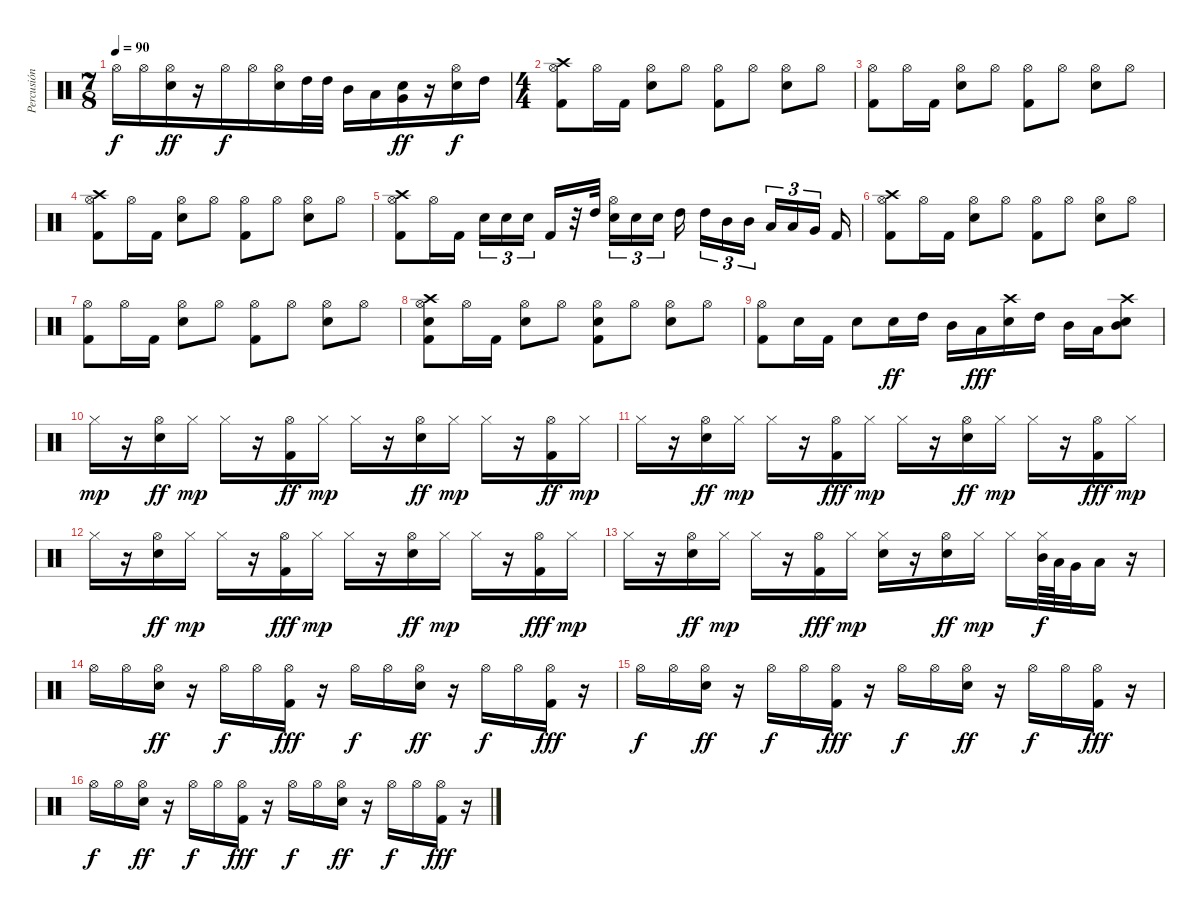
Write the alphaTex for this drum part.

\track ("Percusión" "Percusión") {instrument percussion}
\staff {score}
\articulation defaults
\ts (7 8)
\tempo 90
\clef neutral
\ks c "Hi-Hat (open)".16{dy f} "Hi-Hat (open)".16
("Hi-Hat (open)" "Electric Snare (hit)").16{dy ff} r.16 "Hi-Hat (open)".16{dy f} "Hi-Hat (open)".16 ("Hi-Hat (open)" "Electric Snare (hit)").16 "High Tom (hit)".32 "High Tom (hit)".32 "Mid Tom (hit)".16 "Low Tom (hit)".16 ("Electric Snare (hit)" "Very Low Tom (hit)").16{dy ff} r.16 ("Hi-Hat (open)" "Electric Snare (hit)").16{dy f} "High Tom (hit)".16 |
\ts (4 4)
("Crash high (hit)" "Hi-Hat (open)" "Kick (hit) 2").8 "Hi-Hat (open)".16 "Kick (hit) 2".16 ("Hi-Hat (open)" "Electric Snare (hit)").8 "Hi-Hat (open)".8 ("Hi-Hat (open)" "Kick (hit) 2").8 "Hi-Hat (open)".8 ("Hi-Hat (open)" "Electric Snare (hit)").8 "Hi-Hat (open)".8 |
("Hi-Hat (open)" "Kick (hit) 2").8 "Hi-Hat (open)".16 "Kick (hit) 2".16 ("Hi-Hat (open)" "Electric Snare (hit)").8 "Hi-Hat (open)".8 ("Hi-Hat (open)" "Kick (hit) 2").8 "Hi-Hat (open)".8 ("Hi-Hat (open)" "Electric Snare (hit)").8 "Hi-Hat (open)".8 |
("Crash high (hit)" "Hi-Hat (open)" "Kick (hit) 2").8 "Hi-Hat (open)".16 "Kick (hit) 2".16 ("Hi-Hat (open)" "Electric Snare (hit)").8 "Hi-Hat (open)".8 ("Hi-Hat (open)" "Kick (hit) 2").8 "Hi-Hat (open)".8 ("Hi-Hat (open)" "Electric Snare (hit)").8 "Hi-Hat (open)".8 |
("Crash high (hit)" "Hi-Hat (open)" "Kick (hit) 2").8 "Hi-Hat (open)".16 "Kick (hit) 2".16 "Electric Snare (hit)".16{tu (3 2)} "Electric Snare (hit)".16{tu (3 2)} "Electric Snare (hit)".16{tu (3 2) beam splitsecondary} "Kick (hit) 2".16 r.32 "High Tom (hit)".32 ("Hi-Hat (open)" "Electric Snare (hit)").16{tu (3 2)} "Electric Snare (hit)".16{tu (3 2)} "Electric Snare (hit)".16{tu (3 2) beam splitsecondary} "High Tom (hit)".16{beam splitsecondary} "High Tom (hit)".16{tu (3 2)} "Mid Tom (hit)".16{tu (3 2)} "Mid Tom (hit)".16{tu (3 2) beam splitsecondary} "Low Tom (hit)".16{tu (3 2)} "Low Tom (hit)".16{tu (3 2)} "Very Low Tom (hit)".16{tu (3 2) beam splitsecondary} "Kick (hit) 2".16 |
("Crash high (hit)" "Hi-Hat (open)" "Kick (hit) 2").8 "Hi-Hat (open)".16 "Kick (hit) 2".16 ("Hi-Hat (open)" "Electric Snare (hit)").8 "Hi-Hat (open)".8 ("Hi-Hat (open)" "Kick (hit) 2").8 "Hi-Hat (open)".8 ("Hi-Hat (open)" "Electric Snare (hit)").8 "Hi-Hat (open)".8 |
("Hi-Hat (open)" "Kick (hit) 2").8 "Hi-Hat (open)".16 "Kick (hit) 2".16 ("Hi-Hat (open)" "Electric Snare (hit)").8 "Hi-Hat (open)".8 ("Hi-Hat (open)" "Kick (hit) 2").8 "Hi-Hat (open)".8 ("Hi-Hat (open)" "Electric Snare (hit)").8 "Hi-Hat (open)".8 |
("Crash high (hit)" "Hi-Hat (open)" "Electric Snare (hit)" "Kick (hit) 2").8 "Hi-Hat (open)".16 "Kick (hit) 2".16 ("Hi-Hat (open)" "Electric Snare (hit)").8 "Hi-Hat (open)".8 ("Hi-Hat (open)" "Electric Snare (hit)" "Kick (hit) 2").8 "Hi-Hat (open)".8 ("Hi-Hat (open)" "Electric Snare (hit)").8 "Hi-Hat (open)".8 |
("Hi-Hat (open)" "Kick (hit) 2").8 "Electric Snare (hit)".16 "Kick (hit) 2".16 "Electric Snare (hit)".8 "Electric Snare (hit)".16{dy ff} "High Tom (hit)".16 "Mid Tom (hit)".16 "Low Tom (hit)".16{dy fff} ("Crash high (hit)" "Electric Snare (hit)").16 "High Tom (hit)".16 "Mid Tom (hit)".16 "Low Tom (hit)".16 ("Crash high (hit)" "Mid Tom (hit)" "Electric Snare (hit)").8 |
"Hi-Hat (closed)".16{dy mp} r.16 ("Hi-Hat (open)" "Electric Snare (hit)").16{dy ff} "Hi-Hat (closed)".16{dy mp} "Hi-Hat (closed)".16 r.16 ("Hi-Hat (open)" "Kick (hit) 2").16{dy ff} "Hi-Hat (closed)".16{dy mp} "Hi-Hat (closed)".16 r.16 ("Hi-Hat (open)" "Electric Snare (hit)").16{dy ff} "Hi-Hat (closed)".16{dy mp} "Hi-Hat (closed)".16 r.16 ("Hi-Hat (open)" "Kick (hit) 2").16{dy ff} "Hi-Hat (closed)".16{dy mp} |
"Hi-Hat (closed)".16 r.16 ("Hi-Hat (open)" "Electric Snare (hit)").16{dy ff} "Hi-Hat (closed)".16{dy mp} "Hi-Hat (closed)".16 r.16 ("Hi-Hat (open)" "Kick (hit) 2").16{dy fff} "Hi-Hat (closed)".16{dy mp} "Hi-Hat (closed)".16 r.16 ("Hi-Hat (open)" "Electric Snare (hit)").16{dy ff} "Hi-Hat (closed)".16{dy mp} "Hi-Hat (closed)".16 r.16 ("Hi-Hat (open)" "Kick (hit) 2").16{dy fff} "Hi-Hat (closed)".16{dy mp} |
"Hi-Hat (closed)".16 r.16 ("Hi-Hat (open)" "Electric Snare (hit)").16{dy ff} "Hi-Hat (closed)".16{dy mp} "Hi-Hat (closed)".16 r.16 ("Hi-Hat (open)" "Kick (hit) 2").16{dy fff} "Hi-Hat (closed)".16{dy mp} "Hi-Hat (closed)".16 r.16 ("Hi-Hat (open)" "Electric Snare (hit)").16{dy ff} "Hi-Hat (closed)".16{dy mp} "Hi-Hat (closed)".16 r.16 ("Hi-Hat (open)" "Kick (hit) 2").16{dy fff} "Hi-Hat (closed)".16{dy mp} |
"Hi-Hat (closed)".16 r.16 ("Hi-Hat (open)" "Electric Snare (hit)").16{dy ff} "Hi-Hat (closed)".16{dy mp} "Hi-Hat (closed)".16 r.16 ("Hi-Hat (open)" "Kick (hit) 2").16{dy fff} "Hi-Hat (closed)".16{dy mp} ("Hi-Hat (closed)" "Electric Snare (hit)").16 r.16 ("Hi-Hat (open)" "Electric Snare (hit)").16{dy ff} "Hi-Hat (closed)".16{dy mp} "Hi-Hat (closed)".16 ("Hi-Hat (closed)" "Mid Tom (hit)").64{dy f} "Low Tom (hit)".64 "Very Low Tom (hit)".32 "Low Floor Tom (hit)".16 r.16 |
"Hi-Hat (open)".16 "Hi-Hat (open)".16 ("Hi-Hat (open)" "Electric Snare (hit)").16{dy ff} r.16 "Hi-Hat (open)".16{dy f} "Hi-Hat (open)".16 ("Hi-Hat (open)" "Kick (hit) 2").16{dy fff} r.16 "Hi-Hat (open)".16{dy f} "Hi-Hat (open)".16 ("Hi-Hat (open)" "Electric Snare (hit)").16{dy ff} r.16 "Hi-Hat (open)".16{dy f} "Hi-Hat (open)".16 ("Hi-Hat (open)" "Kick (hit) 2").16{dy fff} r.16 |
"Hi-Hat (open)".16{dy f} "Hi-Hat (open)".16 ("Hi-Hat (open)" "Electric Snare (hit)").16{dy ff} r.16 "Hi-Hat (open)".16{dy f} "Hi-Hat (open)".16 ("Hi-Hat (open)" "Kick (hit) 2").16{dy fff} r.16 "Hi-Hat (open)".16{dy f} "Hi-Hat (open)".16 ("Hi-Hat (open)" "Electric Snare (hit)").16{dy ff} r.16 "Hi-Hat (open)".16{dy f} "Hi-Hat (open)".16 ("Hi-Hat (open)" "Kick (hit) 2").16{dy fff} r.16 |
"Hi-Hat (open)".16{dy f} "Hi-Hat (open)".16 ("Hi-Hat (open)" "Electric Snare (hit)").16{dy ff} r.16 "Hi-Hat (open)".16{dy f} "Hi-Hat (open)".16 ("Hi-Hat (open)" "Kick (hit) 2").16{dy fff} r.16 "Hi-Hat (open)".16{dy f} "Hi-Hat (open)".16 ("Hi-Hat (open)" "Electric Snare (hit)").16{dy ff} r.16 "Hi-Hat (open)".16{dy f} "Hi-Hat (open)".16 ("Hi-Hat (open)" "Kick (hit) 2").16{dy fff} r.16
